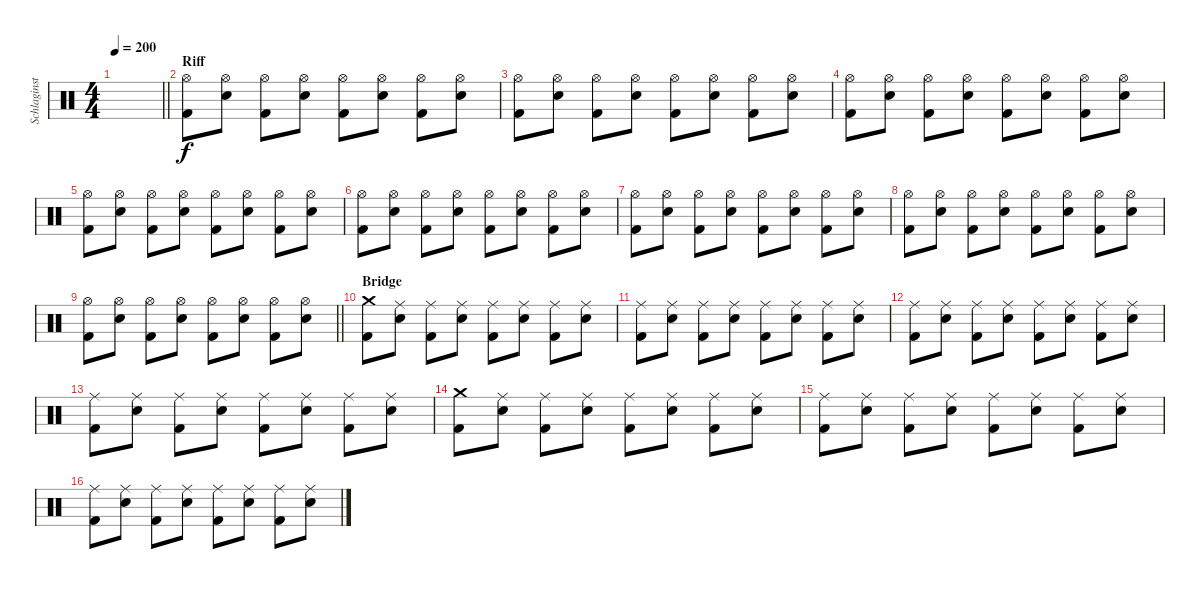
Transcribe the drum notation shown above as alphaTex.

\track ("Schlaginstrumente - Auswahl" "Schlaginst") {instrument percussion}
\staff {score}
\articulation defaults
\ts (4 4)
\tempo 200
\clef neutral
\barLineRight lightlight
\ks c
|
\section ("" "Riff")
("Hi-Hat (open)" "Kick (hit) 2").8 ("Hi-Hat (open)" "Electric Snare (hit)").8 ("Hi-Hat (open)" "Kick (hit) 2").8 ("Hi-Hat (open)" "Electric Snare (hit)").8 ("Hi-Hat (open)" "Kick (hit) 2").8 ("Hi-Hat (open)" "Electric Snare (hit)").8 ("Hi-Hat (open)" "Kick (hit) 2").8 ("Hi-Hat (open)" "Electric Snare (hit)").8 |
("Hi-Hat (open)" "Kick (hit) 2").8 ("Hi-Hat (open)" "Electric Snare (hit)").8 ("Hi-Hat (open)" "Kick (hit) 2").8 ("Hi-Hat (open)" "Electric Snare (hit)").8 ("Hi-Hat (open)" "Kick (hit) 2").8 ("Hi-Hat (open)" "Electric Snare (hit)").8 ("Hi-Hat (open)" "Kick (hit) 2").8 ("Hi-Hat (open)" "Electric Snare (hit)").8 |
("Hi-Hat (open)" "Kick (hit) 2").8 ("Hi-Hat (open)" "Electric Snare (hit)").8 ("Hi-Hat (open)" "Kick (hit) 2").8 ("Hi-Hat (open)" "Electric Snare (hit)").8 ("Hi-Hat (open)" "Kick (hit) 2").8 ("Hi-Hat (open)" "Electric Snare (hit)").8 ("Hi-Hat (open)" "Kick (hit) 2").8 ("Hi-Hat (open)" "Electric Snare (hit)").8 |
("Hi-Hat (open)" "Kick (hit) 2").8 ("Hi-Hat (open)" "Electric Snare (hit)").8 ("Hi-Hat (open)" "Kick (hit) 2").8 ("Hi-Hat (open)" "Electric Snare (hit)").8 ("Hi-Hat (open)" "Kick (hit) 2").8 ("Hi-Hat (open)" "Electric Snare (hit)").8 ("Hi-Hat (open)" "Kick (hit) 2").8 ("Hi-Hat (open)" "Electric Snare (hit)").8 |
("Hi-Hat (open)" "Kick (hit) 2").8 ("Hi-Hat (open)" "Electric Snare (hit)").8 ("Hi-Hat (open)" "Kick (hit) 2").8 ("Hi-Hat (open)" "Electric Snare (hit)").8 ("Hi-Hat (open)" "Kick (hit) 2").8 ("Hi-Hat (open)" "Electric Snare (hit)").8 ("Hi-Hat (open)" "Kick (hit) 2").8 ("Hi-Hat (open)" "Electric Snare (hit)").8 |
("Hi-Hat (open)" "Kick (hit) 2").8 ("Hi-Hat (open)" "Electric Snare (hit)").8 ("Hi-Hat (open)" "Kick (hit) 2").8 ("Hi-Hat (open)" "Electric Snare (hit)").8 ("Hi-Hat (open)" "Kick (hit) 2").8 ("Hi-Hat (open)" "Electric Snare (hit)").8 ("Hi-Hat (open)" "Kick (hit) 2").8 ("Hi-Hat (open)" "Electric Snare (hit)").8 |
("Hi-Hat (open)" "Kick (hit) 2").8 ("Hi-Hat (open)" "Electric Snare (hit)").8 ("Hi-Hat (open)" "Kick (hit) 2").8 ("Hi-Hat (open)" "Electric Snare (hit)").8 ("Hi-Hat (open)" "Kick (hit) 2").8 ("Hi-Hat (open)" "Electric Snare (hit)").8 ("Hi-Hat (open)" "Kick (hit) 2").8 ("Hi-Hat (open)" "Electric Snare (hit)").8 |
\barLineRight lightlight
("Hi-Hat (open)" "Kick (hit) 2").8 ("Hi-Hat (open)" "Electric Snare (hit)").8 ("Hi-Hat (open)" "Kick (hit) 2").8 ("Hi-Hat (open)" "Electric Snare (hit)").8 ("Hi-Hat (open)" "Kick (hit) 2").8 ("Hi-Hat (open)" "Electric Snare (hit)").8 ("Hi-Hat (open)" "Kick (hit) 2").8 ("Hi-Hat (open)" "Electric Snare (hit)").8 |
\section ("" "Bridge")
("Crash medium (hit)" "Kick (hit) 2").8 ("Ride (middle)" "Electric Snare (hit)").8 ("Ride (middle)" "Kick (hit) 2").8 ("Ride (middle)" "Electric Snare (hit)").8 ("Ride (middle)" "Kick (hit) 2").8 ("Ride (middle)" "Electric Snare (hit)").8 ("Ride (middle)" "Kick (hit) 2").8 ("Ride (middle)" "Electric Snare (hit)").8 |
("Ride (middle)" "Kick (hit) 2").8 ("Ride (middle)" "Electric Snare (hit)").8 ("Ride (middle)" "Kick (hit) 2").8 ("Ride (middle)" "Electric Snare (hit)").8 ("Ride (middle)" "Kick (hit) 2").8 ("Ride (middle)" "Electric Snare (hit)").8 ("Ride (middle)" "Kick (hit) 2").8 ("Ride (middle)" "Electric Snare (hit)").8 |
("Ride (middle)" "Kick (hit) 2").8 ("Ride (middle)" "Electric Snare (hit)").8 ("Ride (middle)" "Kick (hit) 2").8 ("Ride (middle)" "Electric Snare (hit)").8 ("Ride (middle)" "Kick (hit) 2").8 ("Ride (middle)" "Electric Snare (hit)").8 ("Ride (middle)" "Kick (hit) 2").8 ("Ride (middle)" "Electric Snare (hit)").8 |
("Ride (middle)" "Kick (hit) 2").8 ("Ride (middle)" "Electric Snare (hit)").8 ("Ride (middle)" "Kick (hit) 2").8 ("Ride (middle)" "Electric Snare (hit)").8 ("Ride (middle)" "Kick (hit) 2").8 ("Ride (middle)" "Electric Snare (hit)").8 ("Ride (middle)" "Kick (hit) 2").8 ("Ride (middle)" "Electric Snare (hit)").8 |
("Crash medium (hit)" "Kick (hit) 2").8 ("Ride (middle)" "Electric Snare (hit)").8 ("Ride (middle)" "Kick (hit) 2").8 ("Ride (middle)" "Electric Snare (hit)").8 ("Ride (middle)" "Kick (hit) 2").8 ("Ride (middle)" "Electric Snare (hit)").8 ("Ride (middle)" "Kick (hit) 2").8 ("Ride (middle)" "Electric Snare (hit)").8 |
("Ride (middle)" "Kick (hit) 2").8 ("Ride (middle)" "Electric Snare (hit)").8 ("Ride (middle)" "Kick (hit) 2").8 ("Ride (middle)" "Electric Snare (hit)").8 ("Ride (middle)" "Kick (hit) 2").8 ("Ride (middle)" "Electric Snare (hit)").8 ("Ride (middle)" "Kick (hit) 2").8 ("Ride (middle)" "Electric Snare (hit)").8 |
("Ride (middle)" "Kick (hit) 2").8 ("Ride (middle)" "Electric Snare (hit)").8 ("Ride (middle)" "Kick (hit) 2").8 ("Ride (middle)" "Electric Snare (hit)").8 ("Ride (middle)" "Kick (hit) 2").8 ("Ride (middle)" "Electric Snare (hit)").8 ("Ride (middle)" "Kick (hit) 2").8 ("Ride (middle)" "Electric Snare (hit)").8
